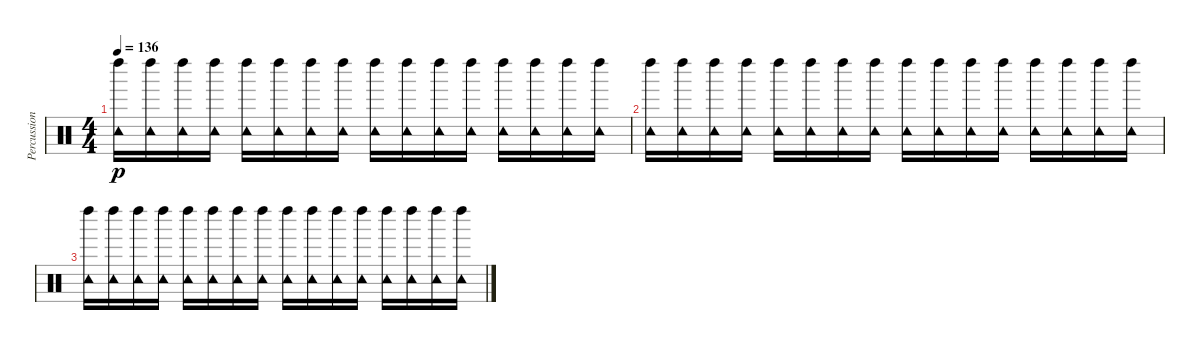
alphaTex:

\track ("Percussion" "Percussion") {instrument percussion}
\staff {score}
\articulation defaults
\ts (4 4)
\tempo 136
\clef neutral
\ks c
("Tambourine (hit)" "Left Maraca (hit)").16{dy p} ("Tambourine (hit)" "Left Maraca (hit)").16 ("Tambourine (hit)" "Left Maraca (hit)").16 ("Tambourine (hit)" "Left Maraca (hit)").16 ("Tambourine (hit)" "Left Maraca (hit)").16 ("Tambourine (hit)" "Left Maraca (hit)").16 ("Tambourine (hit)" "Left Maraca (hit)").16 ("Tambourine (hit)" "Left Maraca (hit)").16 ("Tambourine (hit)" "Left Maraca (hit)").16 ("Tambourine (hit)" "Left Maraca (hit)").16 ("Tambourine (hit)" "Left Maraca (hit)").16 ("Tambourine (hit)" "Left Maraca (hit)").16 ("Tambourine (hit)" "Left Maraca (hit)").16 ("Tambourine (hit)" "Left Maraca (hit)").16 ("Tambourine (hit)" "Left Maraca (hit)").16 ("Tambourine (hit)" "Left Maraca (hit)").16 |
("Tambourine (hit)" "Left Maraca (hit)").16 ("Tambourine (hit)" "Left Maraca (hit)").16 ("Tambourine (hit)" "Left Maraca (hit)").16 ("Tambourine (hit)" "Left Maraca (hit)").16 ("Tambourine (hit)" "Left Maraca (hit)").16 ("Tambourine (hit)" "Left Maraca (hit)").16 ("Tambourine (hit)" "Left Maraca (hit)").16 ("Tambourine (hit)" "Left Maraca (hit)").16 ("Tambourine (hit)" "Left Maraca (hit)").16 ("Tambourine (hit)" "Left Maraca (hit)").16 ("Tambourine (hit)" "Left Maraca (hit)").16 ("Tambourine (hit)" "Left Maraca (hit)").16 ("Tambourine (hit)" "Left Maraca (hit)").16 ("Tambourine (hit)" "Left Maraca (hit)").16 ("Tambourine (hit)" "Left Maraca (hit)").16 ("Tambourine (hit)" "Left Maraca (hit)").16 |
("Tambourine (hit)" "Left Maraca (hit)").16 ("Tambourine (hit)" "Left Maraca (hit)").16 ("Tambourine (hit)" "Left Maraca (hit)").16 ("Tambourine (hit)" "Left Maraca (hit)").16 ("Tambourine (hit)" "Left Maraca (hit)").16 ("Tambourine (hit)" "Left Maraca (hit)").16 ("Tambourine (hit)" "Left Maraca (hit)").16 ("Tambourine (hit)" "Left Maraca (hit)").16 ("Tambourine (hit)" "Left Maraca (hit)").16 ("Tambourine (hit)" "Left Maraca (hit)").16 ("Tambourine (hit)" "Left Maraca (hit)").16 ("Tambourine (hit)" "Left Maraca (hit)").16 ("Tambourine (hit)" "Left Maraca (hit)").16 ("Tambourine (hit)" "Left Maraca (hit)").16 ("Tambourine (hit)" "Left Maraca (hit)").16 ("Tambourine (hit)" "Left Maraca (hit)").16
